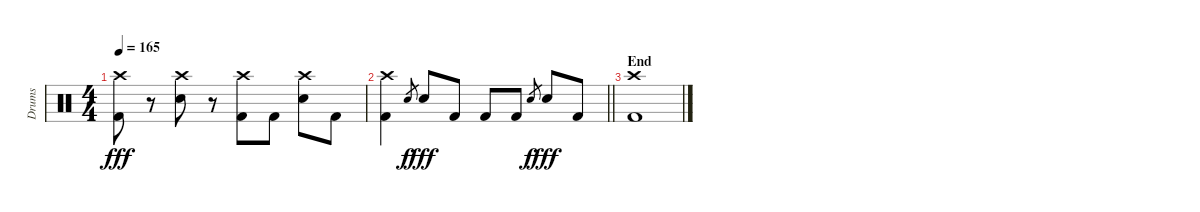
\track ("Drums" "Drums") {instrument percussion}
\staff {score}
\articulation defaults
\ts (4 4)
\tempo 165
\clef neutral
\ks c
("Crash high (hit)" "Kick (hit) 2").8{dy fff} r.8 ("Crash high (hit)" "Electric Snare (hit)").8 r.8 ("Crash high (hit)" "Kick (hit) 2").8 "Kick (hit) 2".8 ("Crash high (hit)" "Electric Snare (hit)").8 "Kick (hit) 2".8 |
\barLineRight lightlight
("Crash high (hit)" "Kick (hit) 2").4 "Electric Snare (hit)".8{gr dy f} "Electric Snare (hit)".8{dy fff} "Kick (hit) 2".8 "Kick (hit) 2".8 "Kick (hit) 2".8 "Electric Snare (hit)".8{gr dy f} "Electric Snare (hit)".8{dy fff} "Kick (hit) 2".8 |
\section ("" "End")
("Crash high (hit)" "Kick (hit) 2").1
